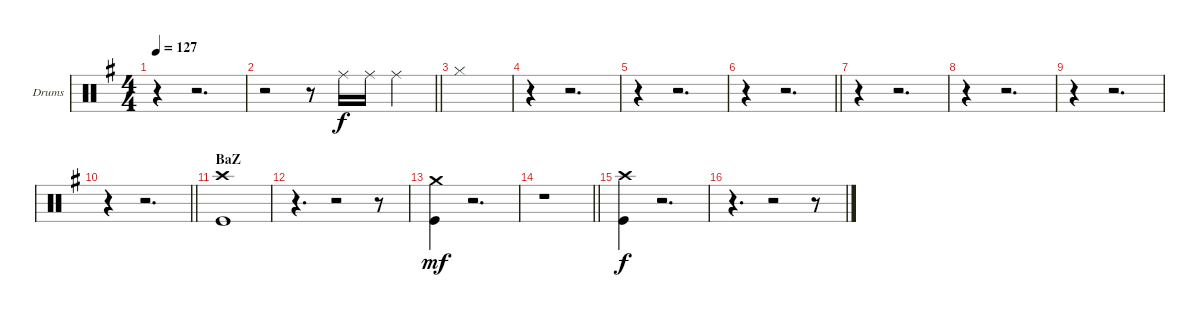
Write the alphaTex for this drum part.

\bracketExtendMode groupsimilarinstruments
\firstSystemTrackNameOrientation horizontal
\otherSystemsTrackNameOrientation horizontal
\track ("drums (Anton Zulganov)" "Drums") {instrument percussion}
\staff {score}
\articulation defaults
\ts (4 4)
\tempo 127
\clef neutral
\ks eminor
r.4{dy f} r.2{d} |
\barLineRight lightlight
r.2 r.8 "Ride (middle)".16 "Ride (middle)".16 "Ride (middle)".4 |
"Hi-Hat (closed)".1 |
r.4 r.2{d} |
r.4 r.2{d} |
\barLineRight lightlight
r.4 r.2{d} |
r.4 r.2{d} |
r.4 r.2{d} |
r.4 r.2{d} |
\barLineRight lightlight
r.4 r.2{d} |
\section ("" "BaZ")
("Kick (hit)" "Crash high (hit)").1 |
r.4{d} r.2 r.8 |
("Kick (hit)" "Crash medium (hit)").4{dy mf} r.2{d} |
\barLineRight lightlight
r.1 |
("Crash high (hit)" "Kick (hit)").4{dy f} r.2{d} |
r.4{d} r.2 r.8
